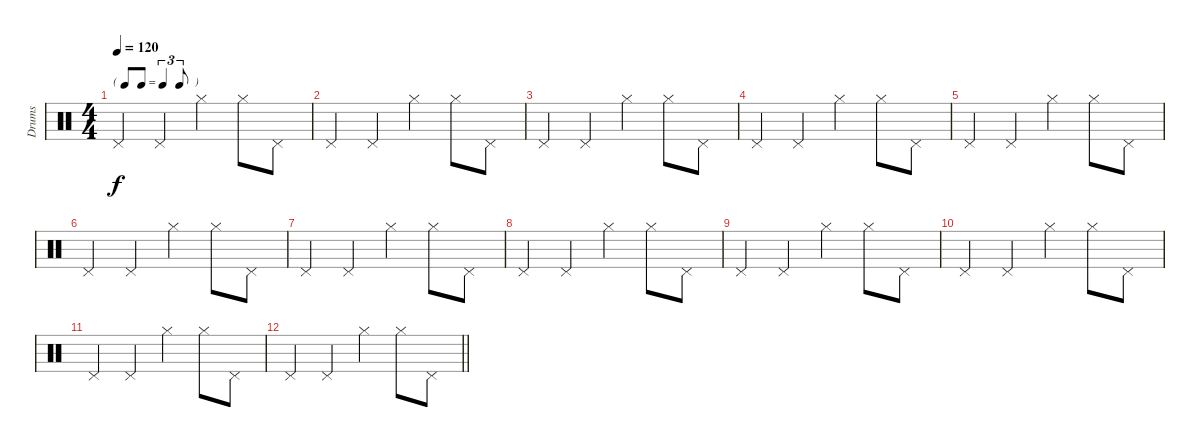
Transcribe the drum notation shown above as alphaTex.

\track ("Drums" "Drums") {instrument percussion}
\staff {score}
\articulation defaults
\ts (4 4)
\tf triplet8th
\tempo 120
\clef neutral
\ks c "Pedal Hi-Hat (hit)".4{dy f} "Pedal Hi-Hat (hit)".4 "Hi-Hat (closed)".4 "Hi-Hat (closed)".8 "Pedal Hi-Hat (hit)".8
|
"Pedal Hi-Hat (hit)".4 "Pedal Hi-Hat (hit)".4 "Hi-Hat (closed)".4 "Hi-Hat (closed)".8 "Pedal Hi-Hat (hit)".8 |
"Pedal Hi-Hat (hit)".4 "Pedal Hi-Hat (hit)".4 "Hi-Hat (closed)".4 "Hi-Hat (closed)".8 "Pedal Hi-Hat (hit)".8 |
"Pedal Hi-Hat (hit)".4 "Pedal Hi-Hat (hit)".4 "Hi-Hat (closed)".4 "Hi-Hat (closed)".8 "Pedal Hi-Hat (hit)".8 |
"Pedal Hi-Hat (hit)".4 "Pedal Hi-Hat (hit)".4 "Hi-Hat (closed)".4 "Hi-Hat (closed)".8 "Pedal Hi-Hat (hit)".8 |
"Pedal Hi-Hat (hit)".4 "Pedal Hi-Hat (hit)".4 "Hi-Hat (closed)".4 "Hi-Hat (closed)".8 "Pedal Hi-Hat (hit)".8 |
"Pedal Hi-Hat (hit)".4 "Pedal Hi-Hat (hit)".4 "Hi-Hat (closed)".4 "Hi-Hat (closed)".8 "Pedal Hi-Hat (hit)".8 |
"Pedal Hi-Hat (hit)".4 "Pedal Hi-Hat (hit)".4 "Hi-Hat (closed)".4 "Hi-Hat (closed)".8 "Pedal Hi-Hat (hit)".8 |
"Pedal Hi-Hat (hit)".4 "Pedal Hi-Hat (hit)".4 "Hi-Hat (closed)".4 "Hi-Hat (closed)".8 "Pedal Hi-Hat (hit)".8 |
"Pedal Hi-Hat (hit)".4 "Pedal Hi-Hat (hit)".4 "Hi-Hat (closed)".4 "Hi-Hat (closed)".8 "Pedal Hi-Hat (hit)".8 |
"Pedal Hi-Hat (hit)".4 "Pedal Hi-Hat (hit)".4 "Hi-Hat (closed)".4 "Hi-Hat (closed)".8 "Pedal Hi-Hat (hit)".8 |
\barLineRight lightlight "Pedal Hi-Hat (hit)".4 "Pedal Hi-Hat (hit)".4 "Hi-Hat (closed)".4 "Hi-Hat (closed)".8 "Pedal Hi-Hat (hit)".8
